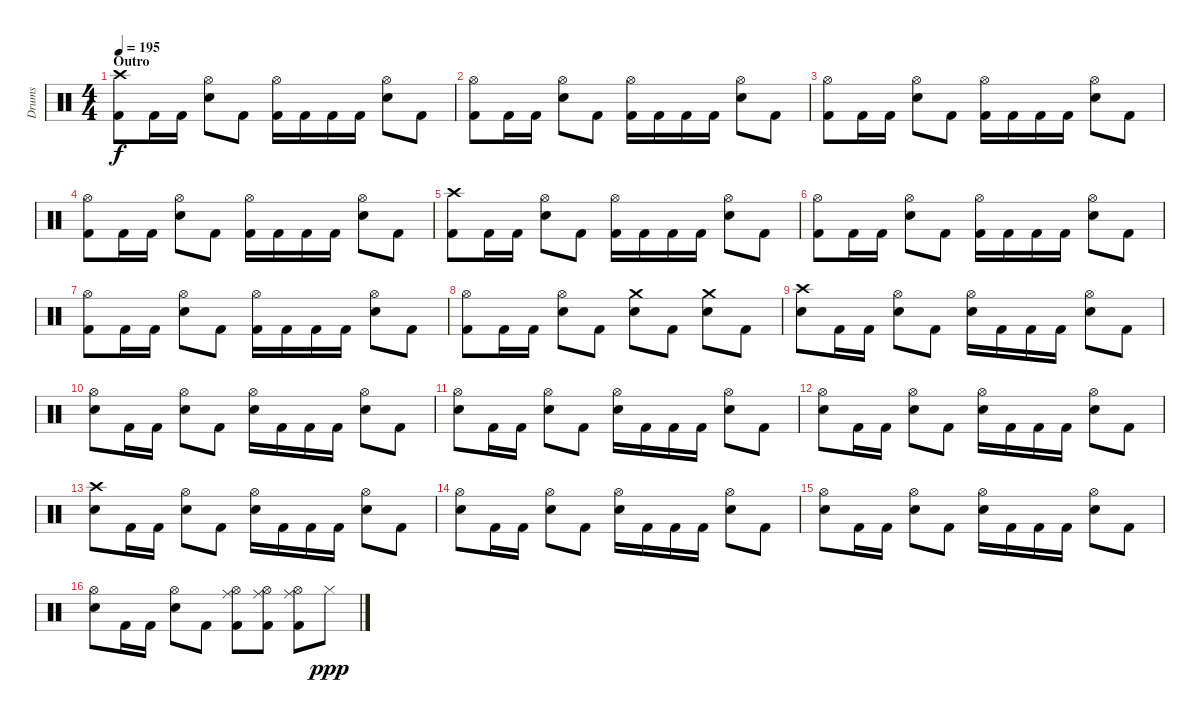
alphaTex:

\track ("Drums" "Drums") {instrument percussion}
\staff {score}
\articulation defaults
\ts (4 4)
\section ("" "Outro")
\tempo 195
\clef neutral
\ks c
("Crash high (hit)" "Kick (hit) 2").8{dy f} "Kick (hit) 2".16 "Kick (hit) 2".16 ("Hi-Hat (open)" "Snare (hit) 2").8 "Kick (hit) 2".8 ("Hi-Hat (open)" "Kick (hit) 2").16 "Kick (hit) 2".16 "Kick (hit) 2".16 "Kick (hit) 2".16 ("Hi-Hat (open)" "Snare (hit) 2").8 "Kick (hit) 2".8 |
("Hi-Hat (open)" "Kick (hit) 2").8 "Kick (hit) 2".16 "Kick (hit) 2".16 ("Hi-Hat (open)" "Snare (hit) 2").8 "Kick (hit) 2".8 ("Hi-Hat (open)" "Kick (hit) 2").16 "Kick (hit) 2".16 "Kick (hit) 2".16 "Kick (hit) 2".16 ("Hi-Hat (open)" "Snare (hit) 2").8 "Kick (hit) 2".8 |
("Hi-Hat (open)" "Kick (hit) 2").8 "Kick (hit) 2".16 "Kick (hit) 2".16 ("Hi-Hat (open)" "Snare (hit) 2").8 "Kick (hit) 2".8 ("Hi-Hat (open)" "Kick (hit) 2").16 "Kick (hit) 2".16 "Kick (hit) 2".16 "Kick (hit) 2".16 ("Hi-Hat (open)" "Snare (hit) 2").8 "Kick (hit) 2".8 |
("Hi-Hat (open)" "Kick (hit) 2").8 "Kick (hit) 2".16 "Kick (hit) 2".16 ("Hi-Hat (open)" "Snare (hit) 2").8 "Kick (hit) 2".8 ("Hi-Hat (open)" "Kick (hit) 2").16 "Kick (hit) 2".16 "Kick (hit) 2".16 "Kick (hit) 2".16 ("Hi-Hat (open)" "Snare (hit) 2").8 "Kick (hit) 2".8 |
("Crash high (hit)" "Kick (hit) 2").8 "Kick (hit) 2".16 "Kick (hit) 2".16 ("Hi-Hat (open)" "Snare (hit) 2").8 "Kick (hit) 2".8 ("Hi-Hat (open)" "Kick (hit) 2").16 "Kick (hit) 2".16 "Kick (hit) 2".16 "Kick (hit) 2".16 ("Hi-Hat (open)" "Snare (hit) 2").8 "Kick (hit) 2".8 |
("Hi-Hat (open)" "Kick (hit) 2").8 "Kick (hit) 2".16 "Kick (hit) 2".16 ("Hi-Hat (open)" "Snare (hit) 2").8 "Kick (hit) 2".8 ("Hi-Hat (open)" "Kick (hit) 2").16 "Kick (hit) 2".16 "Kick (hit) 2".16 "Kick (hit) 2".16 ("Hi-Hat (open)" "Snare (hit) 2").8 "Kick (hit) 2".8 |
("Hi-Hat (open)" "Kick (hit) 2").8 "Kick (hit) 2".16 "Kick (hit) 2".16 ("Hi-Hat (open)" "Snare (hit) 2").8 "Kick (hit) 2".8 ("Hi-Hat (open)" "Kick (hit) 2").16 "Kick (hit) 2".16 "Kick (hit) 2".16 "Kick (hit) 2".16 ("Hi-Hat (open)" "Snare (hit) 2").8 "Kick (hit) 2".8 |
("Hi-Hat (open)" "Kick (hit) 2").8 "Kick (hit) 2".16 "Kick (hit) 2".16 ("Hi-Hat (open)" "Snare (hit) 2").8 "Kick (hit) 2".8 ("Crash medium (hit)" "Snare (hit) 2").8 "Kick (hit) 2".8 ("Crash medium (hit)" "Snare (hit) 2").8 "Kick (hit) 2".8 |
\section ("" "")
("Crash high (hit)" "Snare (hit) 2").8 "Kick (hit) 2".16 "Kick (hit) 2".16 ("Hi-Hat (open)" "Snare (hit) 2").8 "Kick (hit) 2".8 ("Hi-Hat (open)" "Snare (hit) 2").16 "Kick (hit) 2".16 "Kick (hit) 2".16 "Kick (hit) 2".16 ("Hi-Hat (open)" "Snare (hit) 2").8 "Kick (hit) 2".8 |
("Hi-Hat (open)" "Snare (hit) 2").8 "Kick (hit) 2".16 "Kick (hit) 2".16 ("Hi-Hat (open)" "Snare (hit) 2").8 "Kick (hit) 2".8 ("Hi-Hat (open)" "Snare (hit) 2").16 "Kick (hit) 2".16 "Kick (hit) 2".16 "Kick (hit) 2".16 ("Hi-Hat (open)" "Snare (hit) 2").8 "Kick (hit) 2".8 |
("Hi-Hat (open)" "Snare (hit) 2").8 "Kick (hit) 2".16 "Kick (hit) 2".16 ("Hi-Hat (open)" "Snare (hit) 2").8 "Kick (hit) 2".8 ("Hi-Hat (open)" "Snare (hit) 2").16 "Kick (hit) 2".16 "Kick (hit) 2".16 "Kick (hit) 2".16 ("Hi-Hat (open)" "Snare (hit) 2").8 "Kick (hit) 2".8 |
("Hi-Hat (open)" "Snare (hit) 2").8 "Kick (hit) 2".16 "Kick (hit) 2".16 ("Hi-Hat (open)" "Snare (hit) 2").8 "Kick (hit) 2".8 ("Hi-Hat (open)" "Snare (hit) 2").16 "Kick (hit) 2".16 "Kick (hit) 2".16 "Kick (hit) 2".16 ("Hi-Hat (open)" "Snare (hit) 2").8 "Kick (hit) 2".8 |
("Crash high (hit)" "Snare (hit) 2").8 "Kick (hit) 2".16 "Kick (hit) 2".16 ("Hi-Hat (open)" "Snare (hit) 2").8 "Kick (hit) 2".8 ("Hi-Hat (open)" "Snare (hit) 2").16 "Kick (hit) 2".16 "Kick (hit) 2".16 "Kick (hit) 2".16 ("Hi-Hat (open)" "Snare (hit) 2").8 "Kick (hit) 2".8 |
("Hi-Hat (open)" "Snare (hit) 2").8 "Kick (hit) 2".16 "Kick (hit) 2".16 ("Hi-Hat (open)" "Snare (hit) 2").8 "Kick (hit) 2".8 ("Hi-Hat (open)" "Snare (hit) 2").16 "Kick (hit) 2".16 "Kick (hit) 2".16 "Kick (hit) 2".16 ("Hi-Hat (open)" "Snare (hit) 2").8 "Kick (hit) 2".8 |
("Hi-Hat (open)" "Snare (hit) 2").8 "Kick (hit) 2".16 "Kick (hit) 2".16 ("Hi-Hat (open)" "Snare (hit) 2").8 "Kick (hit) 2".8 ("Hi-Hat (open)" "Snare (hit) 2").16 "Kick (hit) 2".16 "Kick (hit) 2".16 "Kick (hit) 2".16 ("Hi-Hat (open)" "Snare (hit) 2").8 "Kick (hit) 2".8 |
("Hi-Hat (open)" "Snare (hit) 2").8 "Kick (hit) 2".16 "Kick (hit) 2".16 ("Hi-Hat (open)" "Snare (hit) 2").8 "Kick (hit) 2".8 ("Hi-Hat (open)" "Ride (middle)" "Kick (hit) 2").8 ("Hi-Hat (open)" "Ride (middle)" "Kick (hit) 2").8 ("Hi-Hat (open)" "Ride (middle)" "Kick (hit) 2").8 "Hi-Hat (closed)".8{dy ppp}
